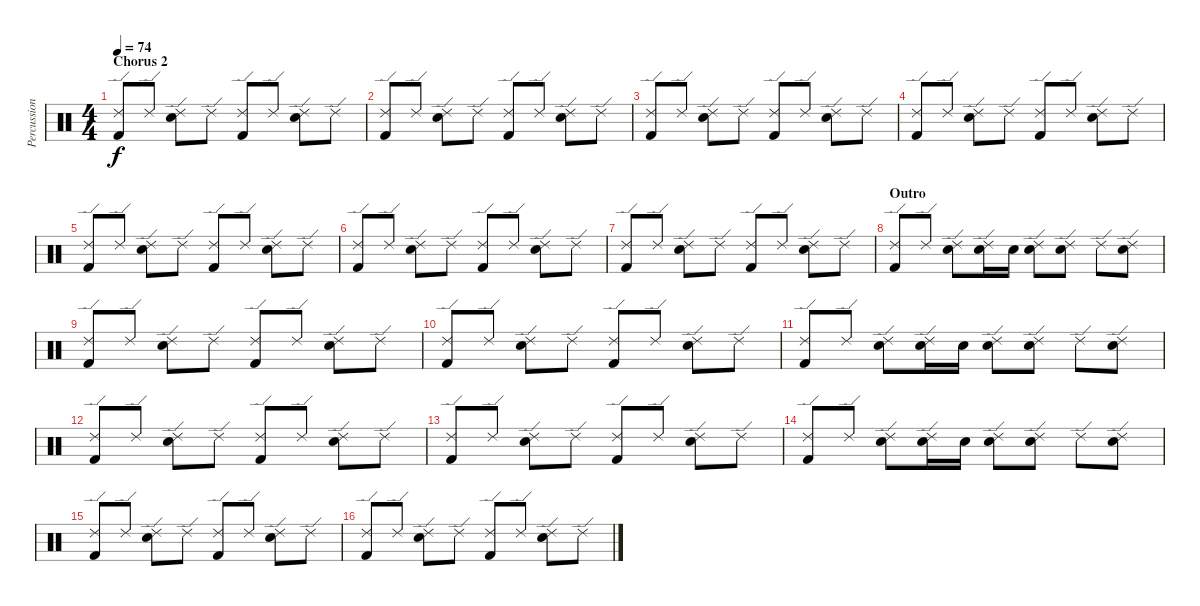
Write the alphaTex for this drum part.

\track ("Percussion" "Percussion") {instrument percussion}
\staff {score}
\articulation defaults
\ts (4 4)
\section ("" "Chorus 2")
\tempo 74
\clef neutral
\ks c
("Ride (edge) 2" "Kick (hit) 2").8{dy f} "Ride (edge) 2".8 ("Ride (edge) 2" "Electric Snare (hit)").8 "Ride (edge) 2".8 ("Ride (edge) 2" "Kick (hit) 2").8 "Ride (edge) 2".8 ("Ride (edge) 2" "Electric Snare (hit)").8 "Ride (edge) 2".8 |
("Ride (edge) 2" "Kick (hit) 2").8 "Ride (edge) 2".8 ("Ride (edge) 2" "Electric Snare (hit)").8 "Ride (edge) 2".8 ("Ride (edge) 2" "Kick (hit) 2").8 "Ride (edge) 2".8 ("Ride (edge) 2" "Electric Snare (hit)").8 "Ride (edge) 2".8 |
("Ride (edge) 2" "Kick (hit) 2").8 "Ride (edge) 2".8 ("Ride (edge) 2" "Electric Snare (hit)").8 "Ride (edge) 2".8 ("Ride (edge) 2" "Kick (hit) 2").8 "Ride (edge) 2".8 ("Ride (edge) 2" "Electric Snare (hit)").8 "Ride (edge) 2".8 |
("Ride (edge) 2" "Kick (hit) 2").8 "Ride (edge) 2".8 ("Ride (edge) 2" "Electric Snare (hit)").8 "Ride (edge) 2".8 ("Ride (edge) 2" "Kick (hit) 2").8 "Ride (edge) 2".8 ("Ride (edge) 2" "Electric Snare (hit)").8 "Ride (edge) 2".8 |
("Ride (edge) 2" "Kick (hit) 2").8 "Ride (edge) 2".8 ("Ride (edge) 2" "Electric Snare (hit)").8 "Ride (edge) 2".8 ("Ride (edge) 2" "Kick (hit) 2").8 "Ride (edge) 2".8 ("Ride (edge) 2" "Electric Snare (hit)").8 "Ride (edge) 2".8 |
("Ride (edge) 2" "Kick (hit) 2").8 "Ride (edge) 2".8 ("Ride (edge) 2" "Electric Snare (hit)").8 "Ride (edge) 2".8 ("Ride (edge) 2" "Kick (hit) 2").8 "Ride (edge) 2".8 ("Ride (edge) 2" "Electric Snare (hit)").8 "Ride (edge) 2".8 |
("Ride (edge) 2" "Kick (hit) 2").8 "Ride (edge) 2".8 ("Ride (edge) 2" "Electric Snare (hit)").8 "Ride (edge) 2".8 ("Ride (edge) 2" "Kick (hit) 2").8 "Ride (edge) 2".8 ("Ride (edge) 2" "Electric Snare (hit)").8 "Ride (edge) 2".8 |
\section ("" "Outro")
("Ride (edge) 2" "Kick (hit) 2").8 "Ride (edge) 2".8 ("Ride (edge) 2" "Electric Snare (hit)").8 ("Ride (edge) 2" "Electric Snare (hit)").16 "Electric Snare (hit)".16 ("Ride (edge) 2" "Electric Snare (hit)").8 ("Ride (edge) 2" "Electric Snare (hit)").8 "Ride (edge) 2".8 ("Ride (edge) 2" "Electric Snare (hit)").8 |
("Ride (edge) 2" "Kick (hit) 2").8 "Ride (edge) 2".8 ("Ride (edge) 2" "Electric Snare (hit)").8 "Ride (edge) 2".8 ("Ride (edge) 2" "Kick (hit) 2").8 "Ride (edge) 2".8 ("Ride (edge) 2" "Electric Snare (hit)").8 "Ride (edge) 2".8 |
("Ride (edge) 2" "Kick (hit) 2").8 "Ride (edge) 2".8 ("Ride (edge) 2" "Electric Snare (hit)").8 "Ride (edge) 2".8 ("Ride (edge) 2" "Kick (hit) 2").8 "Ride (edge) 2".8 ("Ride (edge) 2" "Electric Snare (hit)").8 "Ride (edge) 2".8 |
("Ride (edge) 2" "Kick (hit) 2").8 "Ride (edge) 2".8 ("Ride (edge) 2" "Electric Snare (hit)").8 ("Ride (edge) 2" "Electric Snare (hit)").16 "Electric Snare (hit)".16 ("Ride (edge) 2" "Electric Snare (hit)").8 ("Ride (edge) 2" "Electric Snare (hit)").8 "Ride (edge) 2".8 ("Ride (edge) 2" "Electric Snare (hit)").8 |
("Ride (edge) 2" "Kick (hit) 2").8 "Ride (edge) 2".8 ("Ride (edge) 2" "Electric Snare (hit)").8 "Ride (edge) 2".8 ("Ride (edge) 2" "Kick (hit) 2").8 "Ride (edge) 2".8 ("Ride (edge) 2" "Electric Snare (hit)").8 "Ride (edge) 2".8 |
("Ride (edge) 2" "Kick (hit) 2").8 "Ride (edge) 2".8 ("Ride (edge) 2" "Electric Snare (hit)").8 "Ride (edge) 2".8 ("Ride (edge) 2" "Kick (hit) 2").8 "Ride (edge) 2".8 ("Ride (edge) 2" "Electric Snare (hit)").8 "Ride (edge) 2".8 |
("Ride (edge) 2" "Kick (hit) 2").8 "Ride (edge) 2".8 ("Ride (edge) 2" "Electric Snare (hit)").8 ("Ride (edge) 2" "Electric Snare (hit)").16 "Electric Snare (hit)".16 ("Ride (edge) 2" "Electric Snare (hit)").8 ("Ride (edge) 2" "Electric Snare (hit)").8 "Ride (edge) 2".8 ("Ride (edge) 2" "Electric Snare (hit)").8 |
("Ride (edge) 2" "Kick (hit) 2").8 "Ride (edge) 2".8 ("Ride (edge) 2" "Electric Snare (hit)").8 "Ride (edge) 2".8 ("Ride (edge) 2" "Kick (hit) 2").8 "Ride (edge) 2".8 ("Ride (edge) 2" "Electric Snare (hit)").8 "Ride (edge) 2".8 |
("Ride (edge) 2" "Kick (hit) 2").8 "Ride (edge) 2".8 ("Ride (edge) 2" "Electric Snare (hit)").8 "Ride (edge) 2".8 ("Ride (edge) 2" "Kick (hit) 2").8 "Ride (edge) 2".8 ("Ride (edge) 2" "Electric Snare (hit)").8 "Ride (edge) 2".8
